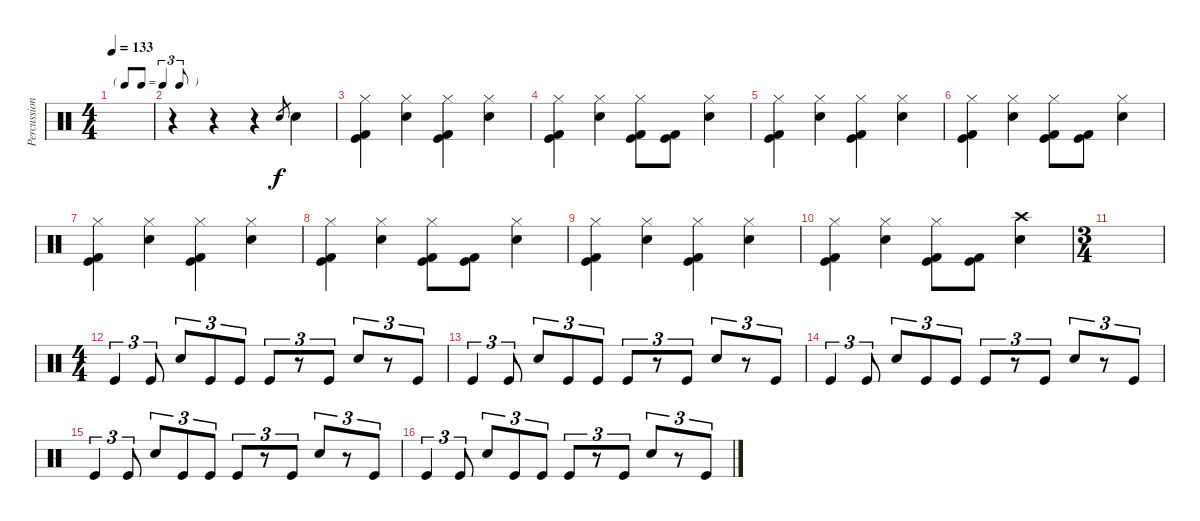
\track ("Percussion" "Percussion") {instrument percussion}
\staff {score}
\articulation defaults
\ts (4 4)
\tf triplet8th
\tempo 133
\clef neutral
\ks c
|
r.4 r.4 r.4 "Electric Snare (hit)".8{gr} "Electric Snare (hit)".4 |
("Hi-Hat (closed)" "Kick (hit) 2" "Kick (hit)").4 ("Hi-Hat (closed)" "Electric Snare (hit)").4 ("Hi-Hat (closed)" "Kick (hit) 2" "Kick (hit)").4 ("Hi-Hat (closed)" "Electric Snare (hit)").4 |
("Hi-Hat (closed)" "Kick (hit) 2" "Kick (hit)").4 ("Hi-Hat (closed)" "Electric Snare (hit)").4 ("Hi-Hat (closed)" "Kick (hit) 2" "Kick (hit)").8 ("Kick (hit) 2" "Kick (hit)").8 ("Hi-Hat (closed)" "Electric Snare (hit)").4 |
("Hi-Hat (closed)" "Kick (hit) 2" "Kick (hit)").4 ("Hi-Hat (closed)" "Electric Snare (hit)").4 ("Hi-Hat (closed)" "Kick (hit) 2" "Kick (hit)").4 ("Hi-Hat (closed)" "Electric Snare (hit)").4 |
("Hi-Hat (closed)" "Kick (hit) 2" "Kick (hit)").4 ("Hi-Hat (closed)" "Electric Snare (hit)").4 ("Hi-Hat (closed)" "Kick (hit) 2" "Kick (hit)").8 ("Kick (hit) 2" "Kick (hit)").8 ("Hi-Hat (closed)" "Electric Snare (hit)").4 |
("Hi-Hat (closed)" "Kick (hit) 2" "Kick (hit)").4 ("Hi-Hat (closed)" "Electric Snare (hit)").4 ("Hi-Hat (closed)" "Kick (hit) 2" "Kick (hit)").4 ("Hi-Hat (closed)" "Electric Snare (hit)").4 |
("Hi-Hat (closed)" "Kick (hit) 2" "Kick (hit)").4 ("Hi-Hat (closed)" "Electric Snare (hit)").4 ("Hi-Hat (closed)" "Kick (hit) 2" "Kick (hit)").8 ("Kick (hit) 2" "Kick (hit)").8 ("Hi-Hat (closed)" "Electric Snare (hit)").4 |
("Hi-Hat (closed)" "Kick (hit) 2" "Kick (hit)").4 ("Hi-Hat (closed)" "Electric Snare (hit)").4 ("Hi-Hat (closed)" "Kick (hit) 2" "Kick (hit)").4 ("Hi-Hat (closed)" "Electric Snare (hit)").4 |
("Hi-Hat (closed)" "Kick (hit) 2" "Kick (hit)").4 ("Hi-Hat (closed)" "Electric Snare (hit)").4 ("Hi-Hat (closed)" "Kick (hit) 2" "Kick (hit)").8 ("Kick (hit) 2" "Kick (hit)").8 ("Crash high (hit)" "Electric Snare (hit)").4 |
\ts (3 4)
|
\ts (4 4)
"Kick (hit)".4{tu (3 2)} "Kick (hit)".8{tu (3 2)} "Snare (hit) 2".8{tu (3 2)} "Kick (hit)".8{tu (3 2)} "Kick (hit)".8{tu (3 2)} "Kick (hit)".8{tu (3 2)} r.8{tu (3 2)} "Kick (hit)".8{tu (3 2)} "Snare (hit) 2".8{tu (3 2)} r.8{tu (3 2)} "Kick (hit)".8{tu (3 2)} |
"Kick (hit)".4{tu (3 2)} "Kick (hit)".8{tu (3 2)} "Snare (hit) 2".8{tu (3 2)} "Kick (hit)".8{tu (3 2)} "Kick (hit)".8{tu (3 2)} "Kick (hit)".8{tu (3 2)} r.8{tu (3 2)} "Kick (hit)".8{tu (3 2)} "Snare (hit) 2".8{tu (3 2)} r.8{tu (3 2)} "Kick (hit)".8{tu (3 2)} |
"Kick (hit)".4{tu (3 2)} "Kick (hit)".8{tu (3 2)} "Snare (hit) 2".8{tu (3 2)} "Kick (hit)".8{tu (3 2)} "Kick (hit)".8{tu (3 2)} "Kick (hit)".8{tu (3 2)} r.8{tu (3 2)} "Kick (hit)".8{tu (3 2)} "Snare (hit) 2".8{tu (3 2)} r.8{tu (3 2)} "Kick (hit)".8{tu (3 2)} |
"Kick (hit)".4{tu (3 2)} "Kick (hit)".8{tu (3 2)} "Snare (hit) 2".8{tu (3 2)} "Kick (hit)".8{tu (3 2)} "Kick (hit)".8{tu (3 2)} "Kick (hit)".8{tu (3 2)} r.8{tu (3 2)} "Kick (hit)".8{tu (3 2)} "Snare (hit) 2".8{tu (3 2)} r.8{tu (3 2)} "Kick (hit)".8{tu (3 2)} |
"Kick (hit)".4{tu (3 2)} "Kick (hit)".8{tu (3 2)} "Snare (hit) 2".8{tu (3 2)} "Kick (hit)".8{tu (3 2)} "Kick (hit)".8{tu (3 2)} "Kick (hit)".8{tu (3 2)} r.8{tu (3 2)} "Kick (hit)".8{tu (3 2)} "Snare (hit) 2".8{tu (3 2)} r.8{tu (3 2)} "Kick (hit)".8{tu (3 2)}
